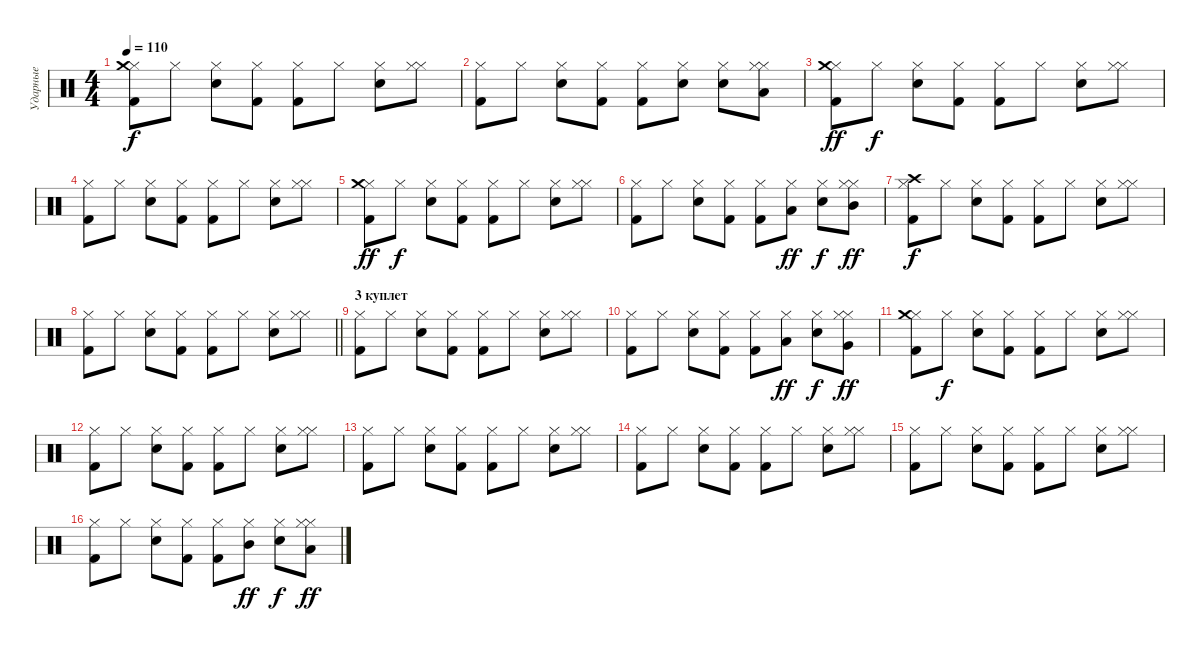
\track ("Ударные" "Ударные") {instrument percussion}
\staff {score}
\articulation defaults
\ts (4 4)
\tempo 110
\clef neutral
\ks c
("Kick (hit) 2" "Hi-Hat (closed)" "Crash medium (hit)").8{dy f} "Hi-Hat (closed)".8 ("Electric Snare (hit)" "Hi-Hat (closed)").8 ("Kick (hit) 2" "Hi-Hat (closed)").8 ("Kick (hit) 2" "Hi-Hat (closed)").8 "Hi-Hat (closed)".8 ("Electric Snare (hit)" "Hi-Hat (closed)").8 ("Hi-Hat (closed)" "Hi-Hat (closed)").8 |
("Kick (hit) 2" "Hi-Hat (closed)").8 "Hi-Hat (closed)".8 ("Electric Snare (hit)" "Hi-Hat (closed)").8 ("Kick (hit) 2" "Hi-Hat (closed)").8 ("Kick (hit) 2" "Hi-Hat (closed)").8 ("Hi-Hat (closed)" "Electric Snare (hit)").8 ("Electric Snare (hit)" "Hi-Hat (closed)").8 ("Hi-Hat (closed)" "Hi-Hat (closed)" "Low Tom (hit)").8 |
("Kick (hit) 2" "Hi-Hat (closed)" "Crash medium (hit)").8{dy ff} "Hi-Hat (closed)".8{dy f} ("Electric Snare (hit)" "Hi-Hat (closed)").8 ("Kick (hit) 2" "Hi-Hat (closed)").8 ("Kick (hit) 2" "Hi-Hat (closed)").8 "Hi-Hat (closed)".8 ("Electric Snare (hit)" "Hi-Hat (closed)").8 ("Hi-Hat (closed)" "Hi-Hat (closed)").8 |
("Kick (hit) 2" "Hi-Hat (closed)").8 "Hi-Hat (closed)".8 ("Electric Snare (hit)" "Hi-Hat (closed)").8 ("Kick (hit) 2" "Hi-Hat (closed)").8 ("Kick (hit) 2" "Hi-Hat (closed)").8 "Hi-Hat (closed)".8 ("Electric Snare (hit)" "Hi-Hat (closed)").8 ("Hi-Hat (closed)" "Hi-Hat (closed)").8 |
("Kick (hit) 2" "Hi-Hat (closed)" "Crash medium (hit)").8{dy ff} "Hi-Hat (closed)".8{dy f} ("Electric Snare (hit)" "Hi-Hat (closed)").8 ("Kick (hit) 2" "Hi-Hat (closed)").8 ("Kick (hit) 2" "Hi-Hat (closed)").8 "Hi-Hat (closed)".8 ("Electric Snare (hit)" "Hi-Hat (closed)").8 ("Hi-Hat (closed)" "Hi-Hat (closed)").8 |
("Kick (hit) 2" "Hi-Hat (closed)").8 "Hi-Hat (closed)".8 ("Electric Snare (hit)" "Hi-Hat (closed)").8 ("Kick (hit) 2" "Hi-Hat (closed)").8 ("Kick (hit) 2" "Hi-Hat (closed)").8 ("Hi-Hat (closed)" "Low Tom (hit)").8{dy ff} ("Electric Snare (hit)" "Hi-Hat (closed)").8{dy f} ("Hi-Hat (closed)" "Hi-Hat (closed)" "Mid Tom (hit)").8{dy ff} |
("Kick (hit) 2" "Hi-Hat (closed)" "Crash high (hit)").8{dy f} "Hi-Hat (closed)".8 ("Electric Snare (hit)" "Hi-Hat (closed)").8 ("Kick (hit) 2" "Hi-Hat (closed)").8 ("Kick (hit) 2" "Hi-Hat (closed)").8 "Hi-Hat (closed)".8 ("Electric Snare (hit)" "Hi-Hat (closed)").8 ("Hi-Hat (closed)" "Hi-Hat (closed)").8 |
\barLineRight lightlight
("Kick (hit) 2" "Hi-Hat (closed)").8 "Hi-Hat (closed)".8 ("Electric Snare (hit)" "Hi-Hat (closed)").8 ("Kick (hit) 2" "Hi-Hat (closed)").8 ("Kick (hit) 2" "Hi-Hat (closed)").8 "Hi-Hat (closed)".8 ("Electric Snare (hit)" "Hi-Hat (closed)").8 ("Hi-Hat (closed)" "Hi-Hat (closed)").8 |
\section ("" "3 куплет")
("Kick (hit) 2" "Hi-Hat (closed)").8 "Hi-Hat (closed)".8 ("Electric Snare (hit)" "Hi-Hat (closed)").8 ("Kick (hit) 2" "Hi-Hat (closed)").8 ("Kick (hit) 2" "Hi-Hat (closed)").8 "Hi-Hat (closed)".8 ("Electric Snare (hit)" "Hi-Hat (closed)").8 ("Hi-Hat (closed)" "Hi-Hat (closed)").8 |
("Kick (hit) 2" "Hi-Hat (closed)").8 "Hi-Hat (closed)".8 ("Electric Snare (hit)" "Hi-Hat (closed)").8 ("Kick (hit) 2" "Hi-Hat (closed)").8 ("Kick (hit) 2" "Hi-Hat (closed)").8 ("Hi-Hat (closed)" "Low Floor Tom (hit)").8{dy ff} ("Electric Snare (hit)" "Hi-Hat (closed)").8{dy f} ("Hi-Hat (closed)" "Hi-Hat (closed)" "Very Low Tom (hit)").8{dy ff} |
("Kick (hit) 2" "Hi-Hat (closed)" "Crash medium (hit)").8 "Hi-Hat (closed)".8{dy f} ("Electric Snare (hit)" "Hi-Hat (closed)").8 ("Kick (hit) 2" "Hi-Hat (closed)").8 ("Kick (hit) 2" "Hi-Hat (closed)").8 "Hi-Hat (closed)".8 ("Electric Snare (hit)" "Hi-Hat (closed)").8 ("Hi-Hat (closed)" "Hi-Hat (closed)").8 |
("Kick (hit) 2" "Hi-Hat (closed)").8 "Hi-Hat (closed)".8 ("Electric Snare (hit)" "Hi-Hat (closed)").8 ("Kick (hit) 2" "Hi-Hat (closed)").8 ("Kick (hit) 2" "Hi-Hat (closed)").8 "Hi-Hat (closed)".8 ("Electric Snare (hit)" "Hi-Hat (closed)").8 ("Hi-Hat (closed)" "Hi-Hat (closed)").8 |
("Kick (hit) 2" "Hi-Hat (closed)").8 "Hi-Hat (closed)".8 ("Electric Snare (hit)" "Hi-Hat (closed)").8 ("Kick (hit) 2" "Hi-Hat (closed)").8 ("Kick (hit) 2" "Hi-Hat (closed)").8 "Hi-Hat (closed)".8 ("Electric Snare (hit)" "Hi-Hat (closed)").8 ("Hi-Hat (closed)" "Hi-Hat (closed)").8 |
("Kick (hit) 2" "Hi-Hat (closed)").8 "Hi-Hat (closed)".8 ("Electric Snare (hit)" "Hi-Hat (closed)").8 ("Kick (hit) 2" "Hi-Hat (closed)").8 ("Kick (hit) 2" "Hi-Hat (closed)").8 "Hi-Hat (closed)".8 ("Electric Snare (hit)" "Hi-Hat (closed)").8 ("Hi-Hat (closed)" "Hi-Hat (closed)").8 |
("Kick (hit) 2" "Hi-Hat (closed)").8 "Hi-Hat (closed)".8 ("Electric Snare (hit)" "Hi-Hat (closed)").8 ("Kick (hit) 2" "Hi-Hat (closed)").8 ("Kick (hit) 2" "Hi-Hat (closed)").8 "Hi-Hat (closed)".8 ("Electric Snare (hit)" "Hi-Hat (closed)").8 ("Hi-Hat (closed)" "Hi-Hat (closed)").8 |
("Kick (hit) 2" "Hi-Hat (closed)").8 "Hi-Hat (closed)".8 ("Electric Snare (hit)" "Hi-Hat (closed)").8 ("Kick (hit) 2" "Hi-Hat (closed)").8 ("Kick (hit) 2" "Hi-Hat (closed)").8 ("Hi-Hat (closed)" "Mid Tom (hit)").8{dy ff} ("Electric Snare (hit)" "Hi-Hat (closed)").8{dy f} ("Hi-Hat (closed)" "Hi-Hat (closed)" "Low Floor Tom (hit)").8{dy ff}
